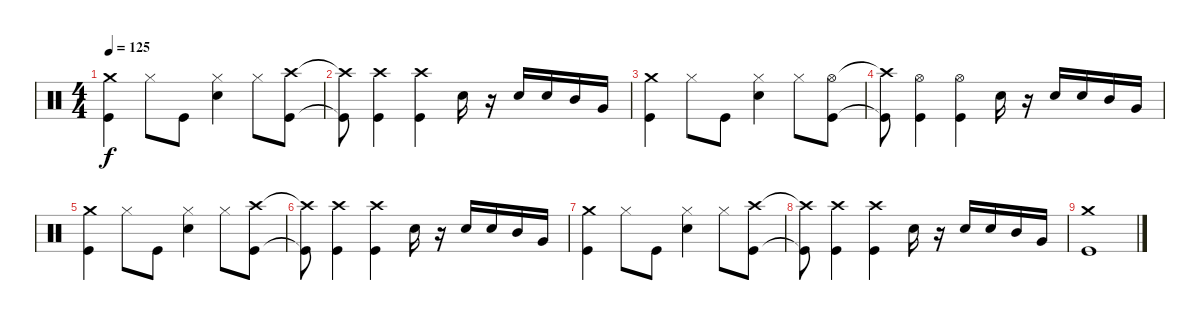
\track "" {instrument percussion}
\staff {score}
\articulation defaults
\ts (4 4)
\tempo 125
\clef neutral
\ks c
("Crash medium (hit)" "Kick (hit)").4{dy f} "Hi-Hat (closed)".8 "Kick (hit)".8 ("Hi-Hat (closed)" "Snare (hit) 2").4 "Hi-Hat (closed)".8 ("Crash high (hit)" "Kick (hit)").8 |
("Crash high (hit)"{t} "Kick (hit)"{t}).8 ("Crash high (hit)" "Kick (hit)").4 ("Crash high (hit)" "Kick (hit)").4 "Snare (hit) 2".16 r.16 "Snare (hit) 2".16 "Snare (hit) 2".16 "Mid Tom (hit)".16 "Very Low Tom (hit)".16 |
("Crash medium (hit)" "Kick (hit)").4 "Hi-Hat (closed)".8 "Kick (hit)".8 ("Hi-Hat (closed)" "Snare (hit) 2").4 "Hi-Hat (closed)".8 ("Hi-Hat (open)" "Kick (hit)").8 |
("Crash high (hit)"{t} "Kick (hit)"{t}).8 ("Hi-Hat (open)" "Kick (hit)").4 ("Hi-Hat (open)" "Kick (hit)").4 "Snare (hit) 2".16 r.16 "Snare (hit) 2".16 "Snare (hit) 2".16 "Mid Tom (hit)".16 "Very Low Tom (hit)".16 |
("Crash medium (hit)" "Kick (hit)").4 "Hi-Hat (closed)".8 "Kick (hit)".8 ("Hi-Hat (closed)" "Snare (hit) 2").4 "Hi-Hat (closed)".8 ("Crash high (hit)" "Kick (hit)").8 |
("Crash high (hit)"{t} "Kick (hit)"{t}).8 ("Crash high (hit)" "Kick (hit)").4 ("Crash high (hit)" "Kick (hit)").4 "Snare (hit) 2".16 r.16 "Snare (hit) 2".16 "Snare (hit) 2".16 "Mid Tom (hit)".16 "Very Low Tom (hit)".16 |
("Crash medium (hit)" "Kick (hit)").4 "Hi-Hat (closed)".8 "Kick (hit)".8 ("Hi-Hat (closed)" "Snare (hit) 2").4 "Hi-Hat (closed)".8 ("Crash high (hit)" "Kick (hit)").8 |
("Crash high (hit)"{t} "Kick (hit)"{t}).8 ("Crash high (hit)" "Kick (hit)").4 ("Crash high (hit)" "Kick (hit)").4 "Snare (hit) 2".16 r.16 "Snare (hit) 2".16 "Snare (hit) 2".16 "Mid Tom (hit)".16 "Very Low Tom (hit)".16 |
("Crash medium (hit)" "Kick (hit)").1
